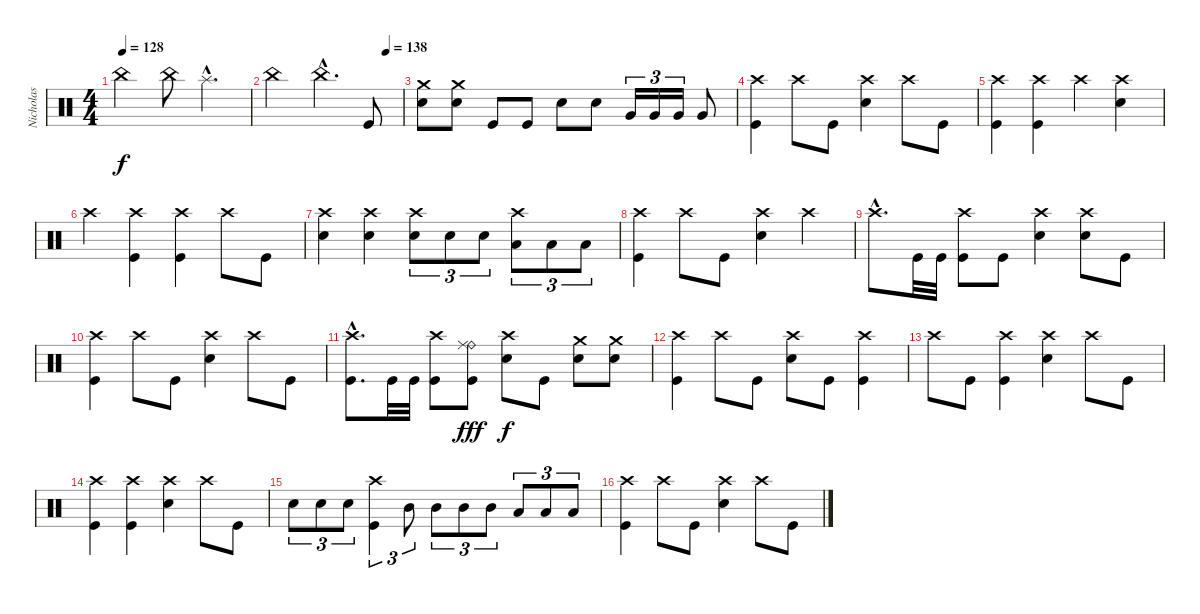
\track ("Nicholas" "Nicholas") {instrument percussion}
\staff {score}
\articulation defaults
\ts (4 4)
\tempo 128
\clef neutral
\ks c "China (hit)".2{dy f} "China (hit)".8 "Splash (hit)"{hac}.4{d}
|
\tempo (138 0.875)
"China (hit)".2 "China (hit)"{hac}.4{d} "Kick (hit)".8 |
("Crash medium (hit)" "Electric Snare (hit)").8 ("Crash medium (hit)" "Electric Snare (hit)").8 "Kick (hit)".8 "Kick (hit)".8 "Electric Snare (hit)".8 "Electric Snare (hit)".8 "Very Low Tom (hit)".16{tu (3 2)} "Very Low Tom (hit)".16{tu (3 2)} "Very Low Tom (hit)".16{tu (3 2)} "Very Low Tom (hit)".8 |
("Crash high (hit)" "Kick (hit)").4 "Crash high (hit)".8 "Kick (hit)".8 ("Crash high (hit)" "Electric Snare (hit)").4 "Crash high (hit)".8 "Kick (hit)".8 |
("Crash high (hit)" "Kick (hit)").4 ("Crash high (hit)" "Kick (hit)").4 "Crash high (hit)".4 ("Crash high (hit)" "Electric Snare (hit)").4 |
"Crash high (hit)".4 ("Crash high (hit)" "Kick (hit)").4 ("Crash high (hit)" "Kick (hit)").4 "Crash high (hit)".8 "Kick (hit)".8 |
("Crash high (hit)" "Electric Snare (hit)").4 ("Crash high (hit)" "Electric Snare (hit)").4 ("Crash high (hit)" "Electric Snare (hit)").8{tu (3 2)} "Electric Snare (hit)".8{tu (3 2)} "Electric Snare (hit)".8{tu (3 2)} ("Crash high (hit)" "Low Tom (hit)").8{tu (3 2)} "Low Tom (hit)".8{tu (3 2)} "Low Tom (hit)".8{tu (3 2)} |
("Crash high (hit)" "Kick (hit)").4 "Crash high (hit)".8 "Kick (hit)".8 ("Crash high (hit)" "Electric Snare (hit)").4 "Crash high (hit)".4 |
"Crash high (hit)"{hac}.8{d} "Kick (hit)".32 "Kick (hit)".32 ("Crash high (hit)" "Kick (hit)").8 "Kick (hit)".8 ("Crash high (hit)" "Electric Snare (hit)").4 ("Crash high (hit)" "Electric Snare (hit)").8 "Kick (hit)".8 |
("Crash high (hit)" "Kick (hit)").4 "Crash high (hit)".8 "Kick (hit)".8 ("Crash high (hit)" "Electric Snare (hit)").4 "Crash high (hit)".8 "Kick (hit)".8 |
("Crash high (hit)"{hac} "Kick (hit)"{hac}).8{d} "Kick (hit)".32 "Kick (hit)".32 ("Crash high (hit)" "Kick (hit)").8 ("Ride (bell)" "Ride (middle)" "Kick (hit)").8{dy fff} ("Crash high (hit)" "Electric Snare (hit)").8{dy f} "Kick (hit)".8 ("Crash medium (hit)" "Electric Snare (hit)").8 ("Crash medium (hit)" "Electric Snare (hit)").8 |
("Crash high (hit)" "Kick (hit)").4 "Crash high (hit)".8 "Kick (hit)".8 ("Crash high (hit)" "Electric Snare (hit)").8 "Kick (hit)".8 ("Crash high (hit)" "Kick (hit)").4 |
"Crash high (hit)".8 "Kick (hit)".8 ("Crash high (hit)" "Kick (hit)").4 ("Crash high (hit)" "Electric Snare (hit)").4 "Crash high (hit)".8 "Kick (hit)".8 |
("Crash high (hit)" "Kick (hit)").4 ("Crash high (hit)" "Kick (hit)").4 ("Crash high (hit)" "Electric Snare (hit)").4 "Crash high (hit)".8 "Kick (hit)".8 |
"Electric Snare (hit)".8{tu (3 2)} "Electric Snare (hit)".8{tu (3 2)} "Electric Snare (hit)".8{tu (3 2)} ("Crash high (hit)" "Kick (hit)").4{tu (3 2)} "Mid Tom (hit)".8{tu (3 2)} "Mid Tom (hit)".8{tu (3 2)} "Mid Tom (hit)".8{tu (3 2)} "Mid Tom (hit)".8{tu (3 2)} "Low Tom (hit)".8{tu (3 2)} "Low Tom (hit)".8{tu (3 2)} "Low Tom (hit)".8{tu (3 2)} |
("Crash high (hit)" "Kick (hit)").4 "Crash high (hit)".8 "Kick (hit)".8 ("Crash high (hit)" "Electric Snare (hit)").4 "Crash high (hit)".8 "Kick (hit)".8
